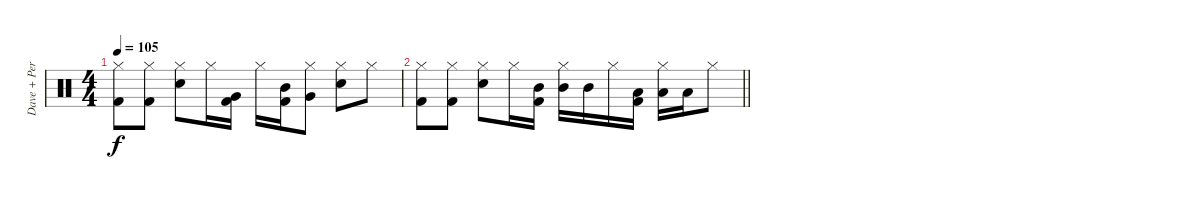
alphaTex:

\track ("Dave + Perc" "Dave + Per") {instrument percussion}
\staff {score}
\articulation defaults
\ts (4 4)
\tempo 105
\clef neutral
\ks c
("Hi-Hat (closed)" "Kick (hit) 2").8{dy f} ("Hi-Hat (closed)" "Kick (hit) 2").8 ("Hi-Hat (closed)" "Snare (hit) 2").8 "Hi-Hat (closed)".16 ("Very Low Tom (hit)" "Kick (hit) 2").16 "Hi-Hat (closed)".16 ("Mid Tom (hit)" "Kick (hit) 2").16 ("Hi-Hat (closed)" "Very Low Tom (hit)").8 ("Hi-Hat (closed)" "Snare (hit) 2").8 "Hi-Hat (closed)".8 |
\barLineRight lightlight
("Hi-Hat (closed)" "Kick (hit) 2").8 ("Hi-Hat (closed)" "Kick (hit) 2").8 ("Hi-Hat (closed)" "Snare (hit) 2").8 "Hi-Hat (closed)".16 ("Mid Tom (hit)" "Kick (hit) 2").16 ("Hi-Hat (closed)" "Mid Tom (hit)").16 "Mid Tom (hit)".16 "Hi-Hat (closed)".16 ("Low Tom (hit)" "Kick (hit) 2").16 ("Hi-Hat (closed)" "Low Tom (hit)").16 "Low Tom (hit)".16 "Hi-Hat (closed)".8
